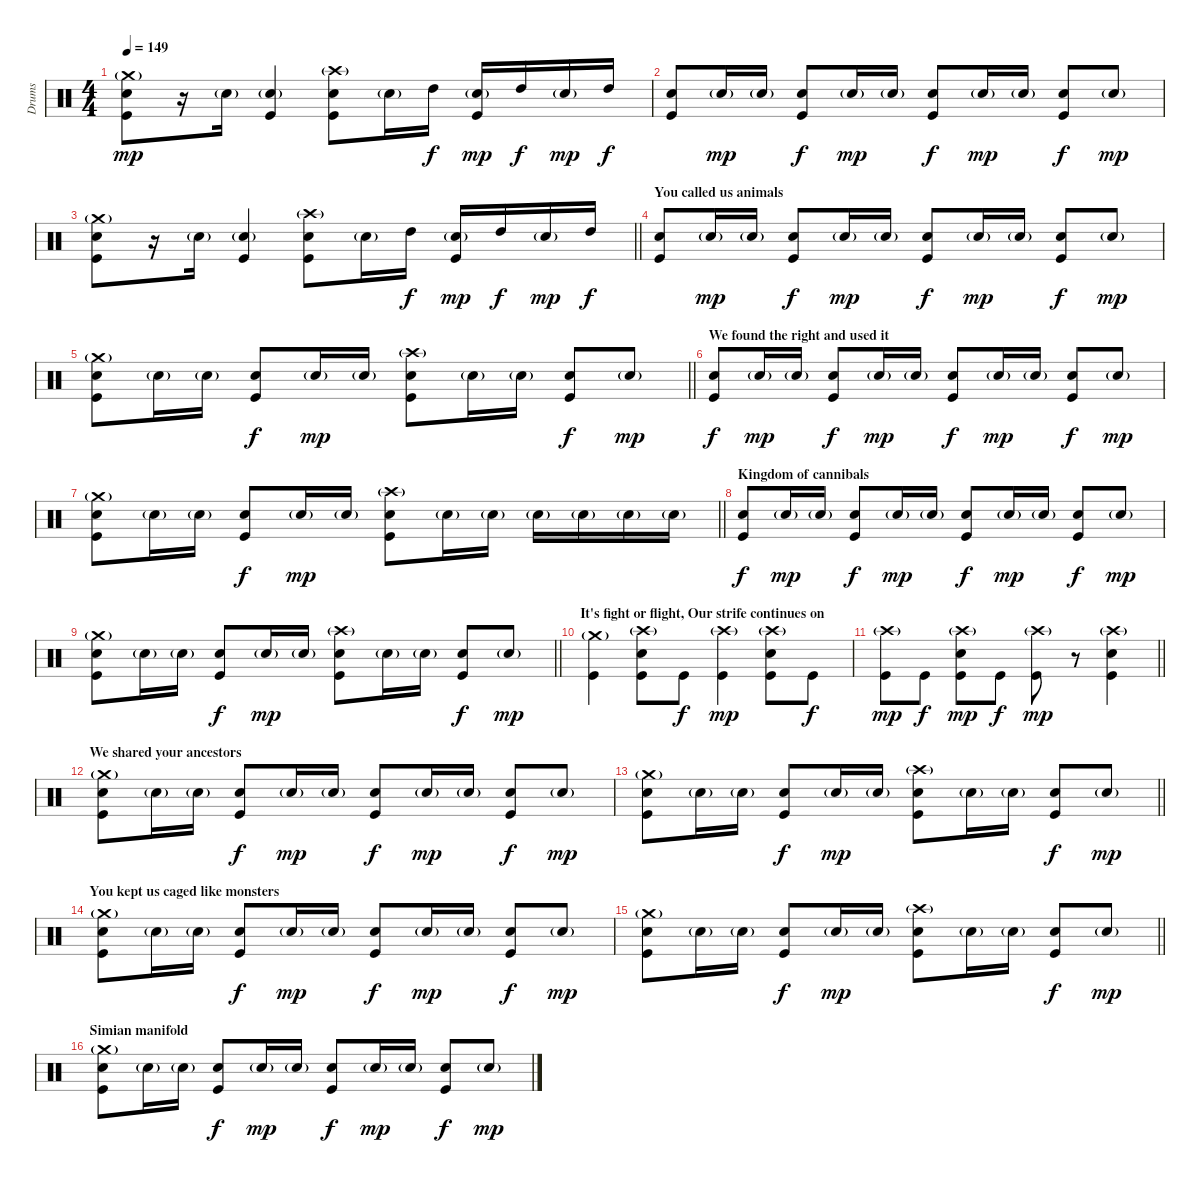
\track ("Drums" "Drums") {instrument percussion}
\staff {score}
\articulation defaults
\ts (4 4)
\tempo 149
\clef neutral
\ks c
("Crash medium (hit)"{g} "Snare (hit) 2" "Kick (hit)").8{dy mp} r.16 "Snare (hit) 2"{g}.16 ("Snare (hit) 2"{g} "Kick (hit)").4 ("Crash high (hit)"{g} "Snare (hit) 2" "Kick (hit)").8 "Snare (hit) 2"{g}.16 "High Tom (hit)".16{dy f} ("Snare (hit) 2"{g} "Kick (hit)").16{dy mp} "High Tom (hit)".16{dy f} "Snare (hit) 2"{g}.16{dy mp} "High Tom (hit)".16{dy f} |
("Snare (hit) 2" "Kick (hit)").8 "Snare (hit) 2"{g}.16{dy mp} "Snare (hit) 2"{g}.16 ("Snare (hit) 2" "Kick (hit)").8{dy f} "Snare (hit) 2"{g}.16{dy mp} "Snare (hit) 2"{g}.16 ("Snare (hit) 2" "Kick (hit)").8{dy f} "Snare (hit) 2"{g}.16{dy mp} "Snare (hit) 2"{g}.16 ("Snare (hit) 2" "Kick (hit)").8{dy f} "Snare (hit) 2"{g}.8{dy mp} |
\barLineRight lightlight
("Crash medium (hit)"{g} "Snare (hit) 2" "Kick (hit)").8 r.16 "Snare (hit) 2"{g}.16 ("Snare (hit) 2"{g} "Kick (hit)").4 ("Crash high (hit)"{g} "Snare (hit) 2" "Kick (hit)").8 "Snare (hit) 2"{g}.16 "High Tom (hit)".16{dy f} ("Snare (hit) 2"{g} "Kick (hit)").16{dy mp} "High Tom (hit)".16{dy f} "Snare (hit) 2"{g}.16{dy mp} "High Tom (hit)".16{dy f} |
\section ("" "You called us animals")
("Snare (hit) 2" "Kick (hit)").8 "Snare (hit) 2"{g}.16{dy mp} "Snare (hit) 2"{g}.16 ("Snare (hit) 2" "Kick (hit)").8{dy f} "Snare (hit) 2"{g}.16{dy mp} "Snare (hit) 2"{g}.16 ("Snare (hit) 2" "Kick (hit)").8{dy f} "Snare (hit) 2"{g}.16{dy mp} "Snare (hit) 2"{g}.16 ("Snare (hit) 2" "Kick (hit)").8{dy f} "Snare (hit) 2"{g}.8{dy mp} |
\barLineRight lightlight
("Crash medium (hit)"{g} "Snare (hit) 2" "Kick (hit)").8 "Snare (hit) 2"{g}.16 "Snare (hit) 2"{g}.16 ("Snare (hit) 2" "Kick (hit)").8{dy f} "Snare (hit) 2"{g}.16{dy mp} "Snare (hit) 2"{g}.16 ("Crash high (hit)"{g} "Snare (hit) 2" "Kick (hit)").8 "Snare (hit) 2"{g}.16 "Snare (hit) 2"{g}.16 ("Snare (hit) 2" "Kick (hit)").8{dy f} "Snare (hit) 2"{g}.8{dy mp} |
\section ("" "We found the right and used it ")
("Snare (hit) 2" "Kick (hit)").8{dy f} "Snare (hit) 2"{g}.16{dy mp} "Snare (hit) 2"{g}.16 ("Snare (hit) 2" "Kick (hit)").8{dy f} "Snare (hit) 2"{g}.16{dy mp} "Snare (hit) 2"{g}.16 ("Snare (hit) 2" "Kick (hit)").8{dy f} "Snare (hit) 2"{g}.16{dy mp} "Snare (hit) 2"{g}.16 ("Snare (hit) 2" "Kick (hit)").8{dy f} "Snare (hit) 2"{g}.8{dy mp} |
\barLineRight lightlight
("Crash medium (hit)"{g} "Snare (hit) 2" "Kick (hit)").8 "Snare (hit) 2"{g}.16 "Snare (hit) 2"{g}.16 ("Snare (hit) 2" "Kick (hit)").8{dy f} "Snare (hit) 2"{g}.16{dy mp} "Snare (hit) 2"{g}.16 ("Crash high (hit)"{g} "Snare (hit) 2" "Kick (hit)").8 "Snare (hit) 2"{g}.16 "Snare (hit) 2"{g}.16 "Snare (hit) 2"{g}.16 "Snare (hit) 2"{g}.16 "Snare (hit) 2"{g}.16 "Snare (hit) 2"{g}.16 |
\section ("" "Kingdom of cannibals ")
("Snare (hit) 2" "Kick (hit)").8{dy f} "Snare (hit) 2"{g}.16{dy mp} "Snare (hit) 2"{g}.16 ("Snare (hit) 2" "Kick (hit)").8{dy f} "Snare (hit) 2"{g}.16{dy mp} "Snare (hit) 2"{g}.16 ("Snare (hit) 2" "Kick (hit)").8{dy f} "Snare (hit) 2"{g}.16{dy mp} "Snare (hit) 2"{g}.16 ("Snare (hit) 2" "Kick (hit)").8{dy f} "Snare (hit) 2"{g}.8{dy mp} |
\barLineRight lightlight
("Crash medium (hit)"{g} "Snare (hit) 2" "Kick (hit)").8 "Snare (hit) 2"{g}.16 "Snare (hit) 2"{g}.16 ("Snare (hit) 2" "Kick (hit)").8{dy f} "Snare (hit) 2"{g}.16{dy mp} "Snare (hit) 2"{g}.16 ("Crash high (hit)"{g} "Snare (hit) 2" "Kick (hit)").8 "Snare (hit) 2"{g}.16 "Snare (hit) 2"{g}.16 ("Snare (hit) 2" "Kick (hit)").8{dy f} "Snare (hit) 2"{g}.8{dy mp} |
\section ("" "It's fight or flight, Our strife continues on ")
("Crash medium (hit)"{g} "Kick (hit)").4 ("Crash high (hit)"{g} "Snare (hit) 2" "Kick (hit)").8 "Kick (hit)".8{dy f} ("Crash high (hit)"{g} "Kick (hit)").4{dy mp} ("Crash high (hit)"{g} "Snare (hit) 2" "Kick (hit)").8 "Kick (hit)".8{dy f} |
\barLineRight lightlight
("Crash high (hit)"{g} "Kick (hit)").8{dy mp} "Kick (hit)".8{dy f} ("Crash high (hit)"{g} "Snare (hit) 2" "Kick (hit)").8{dy mp} "Kick (hit)".8{dy f} ("Crash high (hit)"{g} "Kick (hit)").8{dy mp} r.8 ("Crash high (hit)"{g} "Snare (hit) 2" "Kick (hit)").4 |
\section ("" "We shared your ancestors ")
("Crash medium (hit)"{g} "Snare (hit) 2" "Kick (hit)").8 "Snare (hit) 2"{g}.16 "Snare (hit) 2"{g}.16 ("Snare (hit) 2" "Kick (hit)").8{dy f} "Snare (hit) 2"{g}.16{dy mp} "Snare (hit) 2"{g}.16 ("Snare (hit) 2" "Kick (hit)").8{dy f} "Snare (hit) 2"{g}.16{dy mp} "Snare (hit) 2"{g}.16 ("Snare (hit) 2" "Kick (hit)").8{dy f} "Snare (hit) 2"{g}.8{dy mp} |
\barLineRight lightlight
("Crash medium (hit)"{g} "Snare (hit) 2" "Kick (hit)").8 "Snare (hit) 2"{g}.16 "Snare (hit) 2"{g}.16 ("Snare (hit) 2" "Kick (hit)").8{dy f} "Snare (hit) 2"{g}.16{dy mp} "Snare (hit) 2"{g}.16 ("Crash high (hit)"{g} "Snare (hit) 2" "Kick (hit)").8 "Snare (hit) 2"{g}.16 "Snare (hit) 2"{g}.16 ("Snare (hit) 2" "Kick (hit)").8{dy f} "Snare (hit) 2"{g}.8{dy mp} |
\section ("" "You kept us caged like monsters ")
("Crash medium (hit)"{g} "Snare (hit) 2" "Kick (hit)").8 "Snare (hit) 2"{g}.16 "Snare (hit) 2"{g}.16 ("Snare (hit) 2" "Kick (hit)").8{dy f} "Snare (hit) 2"{g}.16{dy mp} "Snare (hit) 2"{g}.16 ("Snare (hit) 2" "Kick (hit)").8{dy f} "Snare (hit) 2"{g}.16{dy mp} "Snare (hit) 2"{g}.16 ("Snare (hit) 2" "Kick (hit)").8{dy f} "Snare (hit) 2"{g}.8{dy mp} |
\barLineRight lightlight
("Crash medium (hit)"{g} "Snare (hit) 2" "Kick (hit)").8 "Snare (hit) 2"{g}.16 "Snare (hit) 2"{g}.16 ("Snare (hit) 2" "Kick (hit)").8{dy f} "Snare (hit) 2"{g}.16{dy mp} "Snare (hit) 2"{g}.16 ("Crash high (hit)"{g} "Snare (hit) 2" "Kick (hit)").8 "Snare (hit) 2"{g}.16 "Snare (hit) 2"{g}.16 ("Snare (hit) 2" "Kick (hit)").8{dy f} "Snare (hit) 2"{g}.8{dy mp} |
\section ("" "Simian manifold ")
("Crash medium (hit)"{g} "Snare (hit) 2" "Kick (hit)").8 "Snare (hit) 2"{g}.16 "Snare (hit) 2"{g}.16 ("Snare (hit) 2" "Kick (hit)").8{dy f} "Snare (hit) 2"{g}.16{dy mp} "Snare (hit) 2"{g}.16 ("Snare (hit) 2" "Kick (hit)").8{dy f} "Snare (hit) 2"{g}.16{dy mp} "Snare (hit) 2"{g}.16 ("Snare (hit) 2" "Kick (hit)").8{dy f} "Snare (hit) 2"{g}.8{dy mp}
